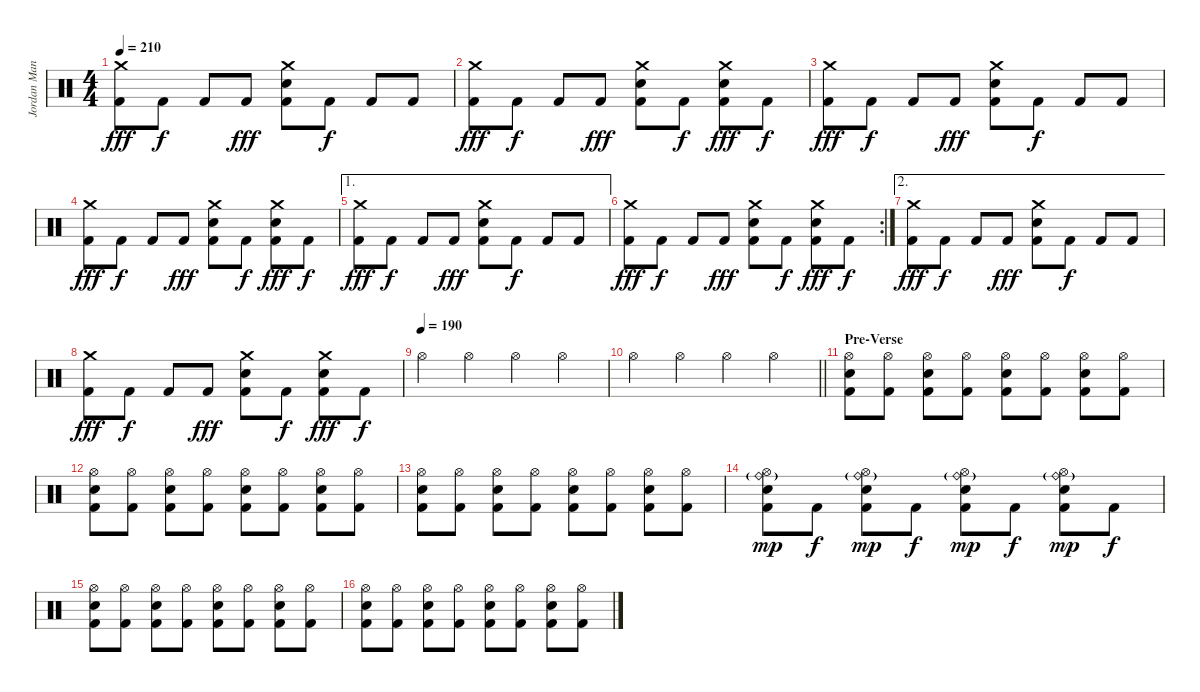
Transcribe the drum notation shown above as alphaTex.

\track ("Jordan Mancino" "Jordan Man") {instrument percussion}
\staff {score}
\articulation defaults
\ts (4 4)
\tempo 210
\clef neutral
\ks c
("Crash medium (hit)" "Kick (hit) 2").8{dy fff} "Kick (hit) 2".8{dy f} "Kick (hit) 2".8 "Kick (hit) 2".8{dy fff} ("Crash medium (hit)" "Snare (hit) 2" "Kick (hit) 2").8 "Kick (hit) 2".8{dy f} "Kick (hit) 2".8 "Kick (hit) 2".8 |
("Crash medium (hit)" "Kick (hit) 2").8{dy fff} "Kick (hit) 2".8{dy f} "Kick (hit) 2".8 "Kick (hit) 2".8{dy fff} ("Crash medium (hit)" "Snare (hit) 2" "Kick (hit) 2").8 "Kick (hit) 2".8{dy f} ("Crash medium (hit)" "Snare (hit) 2" "Kick (hit) 2").8{dy fff} "Kick (hit) 2".8{dy f} |
("Crash medium (hit)" "Kick (hit) 2").8{dy fff} "Kick (hit) 2".8{dy f} "Kick (hit) 2".8 "Kick (hit) 2".8{dy fff} ("Crash medium (hit)" "Snare (hit) 2" "Kick (hit) 2").8 "Kick (hit) 2".8{dy f} "Kick (hit) 2".8 "Kick (hit) 2".8 |
("Crash medium (hit)" "Kick (hit) 2").8{dy fff} "Kick (hit) 2".8{dy f} "Kick (hit) 2".8 "Kick (hit) 2".8{dy fff} ("Crash medium (hit)" "Snare (hit) 2" "Kick (hit) 2").8 "Kick (hit) 2".8{dy f} ("Crash medium (hit)" "Snare (hit) 2" "Kick (hit) 2").8{dy fff} "Kick (hit) 2".8{dy f} |
\ae 1
("Crash medium (hit)" "Kick (hit) 2").8{dy fff} "Kick (hit) 2".8{dy f} "Kick (hit) 2".8 "Kick (hit) 2".8{dy fff} ("Crash medium (hit)" "Snare (hit) 2" "Kick (hit) 2").8 "Kick (hit) 2".8{dy f} "Kick (hit) 2".8 "Kick (hit) 2".8 |
\rc 2
("Crash medium (hit)" "Kick (hit) 2").8{dy fff} "Kick (hit) 2".8{dy f} "Kick (hit) 2".8 "Kick (hit) 2".8{dy fff} ("Crash medium (hit)" "Snare (hit) 2" "Kick (hit) 2").8 "Kick (hit) 2".8{dy f} ("Crash medium (hit)" "Snare (hit) 2" "Kick (hit) 2").8{dy fff} "Kick (hit) 2".8{dy f} |
\ae 2
("Crash medium (hit)" "Kick (hit) 2").8{dy fff} "Kick (hit) 2".8{dy f} "Kick (hit) 2".8 "Kick (hit) 2".8{dy fff} ("Crash medium (hit)" "Snare (hit) 2" "Kick (hit) 2").8 "Kick (hit) 2".8{dy f} "Kick (hit) 2".8 "Kick (hit) 2".8 |
("Crash medium (hit)" "Kick (hit) 2").8{dy fff} "Kick (hit) 2".8{dy f} "Kick (hit) 2".8 "Kick (hit) 2".8{dy fff} ("Crash medium (hit)" "Snare (hit) 2" "Kick (hit) 2").8 "Kick (hit) 2".8{dy f} ("Crash medium (hit)" "Snare (hit) 2" "Kick (hit) 2").8{dy fff} "Kick (hit) 2".8{dy f} |
\tempo (190)
"Hi-Hat (open)".4 "Hi-Hat (open)".4 "Hi-Hat (open)".4 "Hi-Hat (open)".4 |
\barLineRight lightlight "Hi-Hat (open)".4 "Hi-Hat (open)".4 "Hi-Hat (open)".4 "Hi-Hat (open)".4
|
\section ("" "Pre-Verse")
("Hi-Hat (open)" "Snare (hit) 2" "Kick (hit) 2").8 ("Hi-Hat (open)" "Kick (hit) 2").8 ("Hi-Hat (open)" "Snare (hit) 2" "Kick (hit) 2").8 ("Hi-Hat (open)" "Kick (hit) 2").8 ("Hi-Hat (open)" "Snare (hit) 2" "Kick (hit) 2").8 ("Hi-Hat (open)" "Kick (hit) 2").8 ("Hi-Hat (open)" "Snare (hit) 2" "Kick (hit) 2").8 ("Hi-Hat (open)" "Kick (hit) 2").8 |
("Hi-Hat (open)" "Snare (hit) 2" "Kick (hit) 2").8 ("Hi-Hat (open)" "Kick (hit) 2").8 ("Hi-Hat (open)" "Snare (hit) 2" "Kick (hit) 2").8 ("Hi-Hat (open)" "Kick (hit) 2").8 ("Hi-Hat (open)" "Snare (hit) 2" "Kick (hit) 2").8 ("Hi-Hat (open)" "Kick (hit) 2").8 ("Hi-Hat (open)" "Snare (hit) 2" "Kick (hit) 2").8 ("Hi-Hat (open)" "Kick (hit) 2").8 |
("Hi-Hat (open)" "Snare (hit) 2" "Kick (hit) 2").8 ("Hi-Hat (open)" "Kick (hit) 2").8 ("Hi-Hat (open)" "Snare (hit) 2" "Kick (hit) 2").8 ("Hi-Hat (open)" "Kick (hit) 2").8 ("Hi-Hat (open)" "Snare (hit) 2" "Kick (hit) 2").8 ("Hi-Hat (open)" "Kick (hit) 2").8 ("Hi-Hat (open)" "Snare (hit) 2" "Kick (hit) 2").8 ("Hi-Hat (open)" "Kick (hit) 2").8 |
("Ride (bell)"{g} "Hi-Hat (open)" "Snare (hit) 2" "Kick (hit) 2").8{dy mp} "Kick (hit) 2".8{dy f} ("Ride (bell)"{g} "Hi-Hat (open)" "Snare (hit) 2" "Kick (hit) 2").8{dy mp} "Kick (hit) 2".8{dy f} ("Ride (bell)"{g} "Hi-Hat (open)" "Snare (hit) 2" "Kick (hit) 2").8{dy mp} "Kick (hit) 2".8{dy f} ("Ride (bell)"{g} "Hi-Hat (open)" "Snare (hit) 2" "Kick (hit) 2").8{dy mp} "Kick (hit) 2".8{dy f} |
("Hi-Hat (open)" "Snare (hit) 2" "Kick (hit) 2").8 ("Hi-Hat (open)" "Kick (hit) 2").8 ("Hi-Hat (open)" "Snare (hit) 2" "Kick (hit) 2").8 ("Hi-Hat (open)" "Kick (hit) 2").8 ("Hi-Hat (open)" "Snare (hit) 2" "Kick (hit) 2").8 ("Hi-Hat (open)" "Kick (hit) 2").8 ("Hi-Hat (open)" "Snare (hit) 2" "Kick (hit) 2").8 ("Hi-Hat (open)" "Kick (hit) 2").8 |
("Hi-Hat (open)" "Snare (hit) 2" "Kick (hit) 2").8 ("Hi-Hat (open)" "Kick (hit) 2").8 ("Hi-Hat (open)" "Snare (hit) 2" "Kick (hit) 2").8 ("Hi-Hat (open)" "Kick (hit) 2").8 ("Hi-Hat (open)" "Snare (hit) 2" "Kick (hit) 2").8 ("Hi-Hat (open)" "Kick (hit) 2").8 ("Hi-Hat (open)" "Snare (hit) 2" "Kick (hit) 2").8 ("Hi-Hat (open)" "Kick (hit) 2").8
